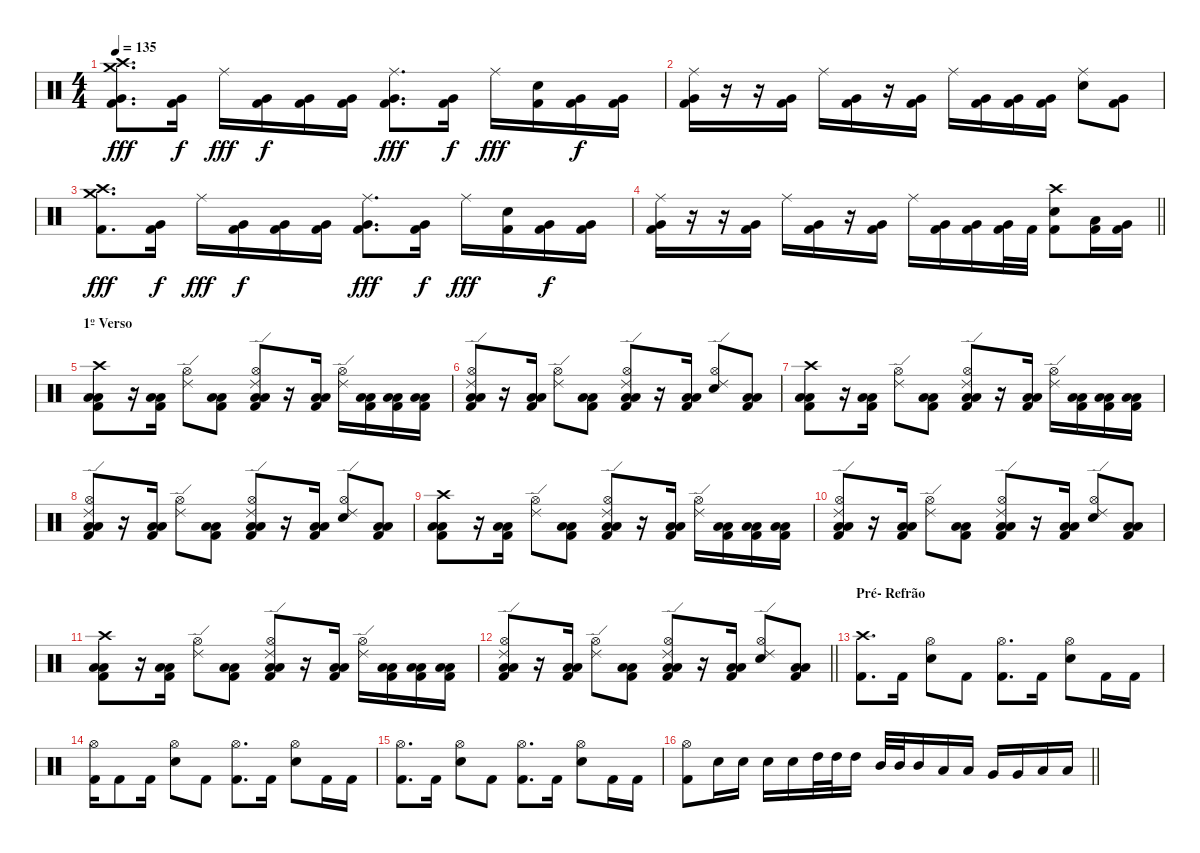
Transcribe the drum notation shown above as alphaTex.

\track "" {instrument percussion}
\staff {score}
\articulation defaults
\ts (4 4)
\tempo 135
\clef neutral
\ks c
("Crash high (hit)" "Crash medium (hit)" "Very Low Tom (hit)" "Kick (hit) 2").8{d dy fff} ("Very Low Tom (hit)" "Kick (hit) 2").16{dy f} "Ride (middle)".16{dy fff} ("Very Low Tom (hit)" "Kick (hit) 2").16{dy f} ("Very Low Tom (hit)" "Kick (hit) 2").16 ("Very Low Tom (hit)" "Kick (hit) 2").16 ("Ride (middle)" "Very Low Tom (hit)" "Kick (hit) 2").8{d dy fff} ("Very Low Tom (hit)" "Kick (hit) 2").16{dy f} "Ride (middle)".16{dy fff} ("Electric Snare (hit)" "Kick (hit) 2").16 ("Very Low Tom (hit)" "Kick (hit) 2").16{dy f} ("Very Low Tom (hit)" "Kick (hit) 2").16 |
("Ride (middle)" "Very Low Tom (hit)" "Kick (hit) 2").16 r.16 r.16 ("Very Low Tom (hit)" "Kick (hit) 2").16 "Ride (middle)".16 ("Very Low Tom (hit)" "Kick (hit) 2").16 r.16 ("Very Low Tom (hit)" "Kick (hit) 2").16 "Ride (middle)".16 ("Very Low Tom (hit)" "Kick (hit) 2").16 ("Very Low Tom (hit)" "Kick (hit) 2").16 ("Very Low Tom (hit)" "Kick (hit) 2").16 ("Ride (middle)" "Electric Snare (hit)").8 ("Very Low Tom (hit)" "Kick (hit) 2").8 |
("Crash high (hit)" "Crash medium (hit)" "Kick (hit) 2").8{d dy fff} ("Very Low Tom (hit)" "Kick (hit) 2").16{dy f} "Ride (middle)".16{dy fff} ("Very Low Tom (hit)" "Kick (hit) 2").16{dy f} ("Very Low Tom (hit)" "Kick (hit) 2").16 ("Very Low Tom (hit)" "Kick (hit) 2").16 ("Ride (middle)" "Very Low Tom (hit)" "Kick (hit) 2").8{d dy fff} ("Very Low Tom (hit)" "Kick (hit) 2").16{dy f} "Ride (middle)".16{dy fff} ("Electric Snare (hit)" "Kick (hit) 2").16 ("Very Low Tom (hit)" "Kick (hit) 2").16{dy f} ("Very Low Tom (hit)" "Kick (hit) 2").16 |
\barLineRight lightlight
("Ride (middle)" "Very Low Tom (hit)" "Kick (hit) 2").16 r.16 r.16 ("Very Low Tom (hit)" "Kick (hit) 2").16 "Ride (middle)".16 ("Very Low Tom (hit)" "Kick (hit) 2").16 r.16 ("Very Low Tom (hit)" "Kick (hit) 2").16 "Ride (middle)".16 ("Very Low Tom (hit)" "Kick (hit) 2").16 ("Very Low Tom (hit)" "Kick (hit) 2").16 ("Very Low Tom (hit)" "Kick (hit) 2").32 "Kick (hit) 2".32 ("Crash high (hit)" "Electric Snare (hit)" "Kick (hit) 2").8 ("Low Tom (hit)" "Kick (hit) 2").16 ("Very Low Tom (hit)" "Kick (hit) 2").16 |
\section ("" "1º Verso")
("Crash high (hit)" "Low Floor Tom (hit)" "Low Tom (hit)" "Kick (hit) 2").8 r.16 ("Low Floor Tom (hit)" "Low Tom (hit)" "Kick (hit) 2").16 ("Hi-Hat (open)" "Ride (edge) 2").8 ("Low Floor Tom (hit)" "Low Tom (hit)" "Kick (hit) 2").8 ("Hi-Hat (open)" "Ride (edge) 2" "Low Floor Tom (hit)" "Low Tom (hit)" "Kick (hit) 2").8 r.16 ("Low Floor Tom (hit)" "Low Tom (hit)" "Kick (hit) 2").16 ("Hi-Hat (open)" "Ride (edge) 2").16 ("Low Floor Tom (hit)" "Low Tom (hit)" "Kick (hit) 2").16 ("Low Floor Tom (hit)" "Low Tom (hit)" "Kick (hit) 2").16 ("Low Floor Tom (hit)" "Low Tom (hit)" "Kick (hit) 2").16 |
("Hi-Hat (open)" "Ride (edge) 2" "Low Floor Tom (hit)" "Low Tom (hit)" "Kick (hit) 2").8 r.16 ("Low Floor Tom (hit)" "Low Tom (hit)" "Kick (hit) 2").16 ("Hi-Hat (open)" "Ride (edge) 2").8 ("Low Floor Tom (hit)" "Low Tom (hit)" "Kick (hit) 2").8 ("Hi-Hat (open)" "Ride (edge) 2" "Low Floor Tom (hit)" "Low Tom (hit)" "Kick (hit) 2").8 r.16 ("Low Floor Tom (hit)" "Low Tom (hit)" "Kick (hit) 2").16 ("Hi-Hat (open)" "Ride (edge) 2" "Electric Snare (hit)").8 ("Low Floor Tom (hit)" "Low Tom (hit)" "Kick (hit) 2").8 |
("Crash high (hit)" "Low Floor Tom (hit)" "Low Tom (hit)" "Kick (hit) 2").8 r.16 ("Low Floor Tom (hit)" "Low Tom (hit)" "Kick (hit) 2").16 ("Hi-Hat (open)" "Ride (edge) 2").8 ("Low Floor Tom (hit)" "Low Tom (hit)" "Kick (hit) 2").8 ("Hi-Hat (open)" "Ride (edge) 2" "Low Floor Tom (hit)" "Low Tom (hit)" "Kick (hit) 2").8 r.16 ("Low Floor Tom (hit)" "Low Tom (hit)" "Kick (hit) 2").16 ("Hi-Hat (open)" "Ride (edge) 2").16 ("Low Floor Tom (hit)" "Low Tom (hit)" "Kick (hit) 2").16 ("Low Floor Tom (hit)" "Low Tom (hit)" "Kick (hit) 2").16 ("Low Floor Tom (hit)" "Low Tom (hit)" "Kick (hit) 2").16 |
("Hi-Hat (open)" "Ride (edge) 2" "Low Floor Tom (hit)" "Low Tom (hit)" "Kick (hit) 2").8 r.16 ("Low Floor Tom (hit)" "Low Tom (hit)" "Kick (hit) 2").16 ("Hi-Hat (open)" "Ride (edge) 2").8 ("Low Floor Tom (hit)" "Low Tom (hit)" "Kick (hit) 2").8 ("Hi-Hat (open)" "Ride (edge) 2" "Low Floor Tom (hit)" "Low Tom (hit)" "Kick (hit) 2").8 r.16 ("Low Floor Tom (hit)" "Low Tom (hit)" "Kick (hit) 2").16 ("Hi-Hat (open)" "Ride (edge) 2" "Electric Snare (hit)").8 ("Low Floor Tom (hit)" "Low Tom (hit)" "Kick (hit) 2").8 |
("Crash high (hit)" "Low Floor Tom (hit)" "Low Tom (hit)" "Kick (hit) 2").8 r.16 ("Low Floor Tom (hit)" "Low Tom (hit)" "Kick (hit) 2").16 ("Hi-Hat (open)" "Ride (edge) 2").8 ("Low Floor Tom (hit)" "Low Tom (hit)" "Kick (hit) 2").8 ("Hi-Hat (open)" "Ride (edge) 2" "Low Floor Tom (hit)" "Low Tom (hit)" "Kick (hit) 2").8 r.16 ("Low Floor Tom (hit)" "Low Tom (hit)" "Kick (hit) 2").16 ("Hi-Hat (open)" "Ride (edge) 2").16 ("Low Floor Tom (hit)" "Low Tom (hit)" "Kick (hit) 2").16 ("Low Floor Tom (hit)" "Low Tom (hit)" "Kick (hit) 2").16 ("Low Floor Tom (hit)" "Low Tom (hit)" "Kick (hit) 2").16 |
("Hi-Hat (open)" "Ride (edge) 2" "Low Floor Tom (hit)" "Low Tom (hit)" "Kick (hit) 2").8 r.16 ("Low Floor Tom (hit)" "Low Tom (hit)" "Kick (hit) 2").16 ("Hi-Hat (open)" "Ride (edge) 2").8 ("Low Floor Tom (hit)" "Low Tom (hit)" "Kick (hit) 2").8 ("Hi-Hat (open)" "Ride (edge) 2" "Low Floor Tom (hit)" "Low Tom (hit)" "Kick (hit) 2").8 r.16 ("Low Floor Tom (hit)" "Low Tom (hit)" "Kick (hit) 2").16 ("Hi-Hat (open)" "Ride (edge) 2" "Electric Snare (hit)").8 ("Low Floor Tom (hit)" "Low Tom (hit)" "Kick (hit) 2").8 |
("Crash high (hit)" "Low Floor Tom (hit)" "Low Tom (hit)" "Kick (hit) 2").8 r.16 ("Low Floor Tom (hit)" "Low Tom (hit)" "Kick (hit) 2").16 ("Hi-Hat (open)" "Ride (edge) 2").8 ("Low Floor Tom (hit)" "Low Tom (hit)" "Kick (hit) 2").8 ("Hi-Hat (open)" "Ride (edge) 2" "Low Floor Tom (hit)" "Low Tom (hit)" "Kick (hit) 2").8 r.16 ("Low Floor Tom (hit)" "Low Tom (hit)" "Kick (hit) 2").16 ("Hi-Hat (open)" "Ride (edge) 2").16 ("Low Floor Tom (hit)" "Low Tom (hit)" "Kick (hit) 2").16 ("Low Floor Tom (hit)" "Low Tom (hit)" "Kick (hit) 2").16 ("Low Floor Tom (hit)" "Low Tom (hit)" "Kick (hit) 2").16 |
\barLineRight lightlight
("Hi-Hat (open)" "Ride (edge) 2" "Low Floor Tom (hit)" "Low Tom (hit)" "Kick (hit) 2").8 r.16 ("Low Floor Tom (hit)" "Low Tom (hit)" "Kick (hit) 2").16 ("Hi-Hat (open)" "Ride (edge) 2").8 ("Low Floor Tom (hit)" "Low Tom (hit)" "Kick (hit) 2").8 ("Hi-Hat (open)" "Ride (edge) 2" "Low Floor Tom (hit)" "Low Tom (hit)" "Kick (hit) 2").8 r.16 ("Low Floor Tom (hit)" "Low Tom (hit)" "Kick (hit) 2").16 ("Hi-Hat (open)" "Ride (edge) 2" "Electric Snare (hit)").8 ("Low Floor Tom (hit)" "Low Tom (hit)" "Kick (hit) 2").8 |
\section ("" "Pré- Refrão")
("Crash high (hit)" "Kick (hit) 2").8{d} "Kick (hit) 2".16 ("Hi-Hat (open)" "Electric Snare (hit)").8 "Kick (hit) 2".8 ("Hi-Hat (open)" "Kick (hit) 2").8{d} "Kick (hit) 2".16 ("Hi-Hat (open)" "Electric Snare (hit)").8 "Kick (hit) 2".16 "Kick (hit) 2".16 |
("Hi-Hat (open)" "Kick (hit) 2").16 "Kick (hit) 2".8 "Kick (hit) 2".16 ("Hi-Hat (open)" "Electric Snare (hit)").8 "Kick (hit) 2".8 ("Hi-Hat (open)" "Kick (hit) 2").8{d} "Kick (hit) 2".16 ("Hi-Hat (open)" "Electric Snare (hit)").8 "Kick (hit) 2".16 "Kick (hit) 2".16 |
("Hi-Hat (open)" "Kick (hit) 2").8{d} "Kick (hit) 2".16 ("Hi-Hat (open)" "Electric Snare (hit)").8 "Kick (hit) 2".8 ("Hi-Hat (open)" "Kick (hit) 2").8{d} "Kick (hit) 2".16 ("Hi-Hat (open)" "Electric Snare (hit)").8 "Kick (hit) 2".16 "Kick (hit) 2".16 |
\barLineRight lightlight
("Hi-Hat (open)" "Kick (hit) 2").8 "Electric Snare (hit)".16 "Electric Snare (hit)".16 "Electric Snare (hit)".16 "Electric Snare (hit)".16 "High Tom (hit)".32 "High Tom (hit)".32 "High Tom (hit)".16 "Mid Tom (hit)".32 "Mid Tom (hit)".32 "Mid Tom (hit)".16 "Low Tom (hit)".16 "Low Tom (hit)".16 "Very Low Tom (hit)".16 "Very Low Tom (hit)".16 "Low Floor Tom (hit)".16 "Low Floor Tom (hit)".16
